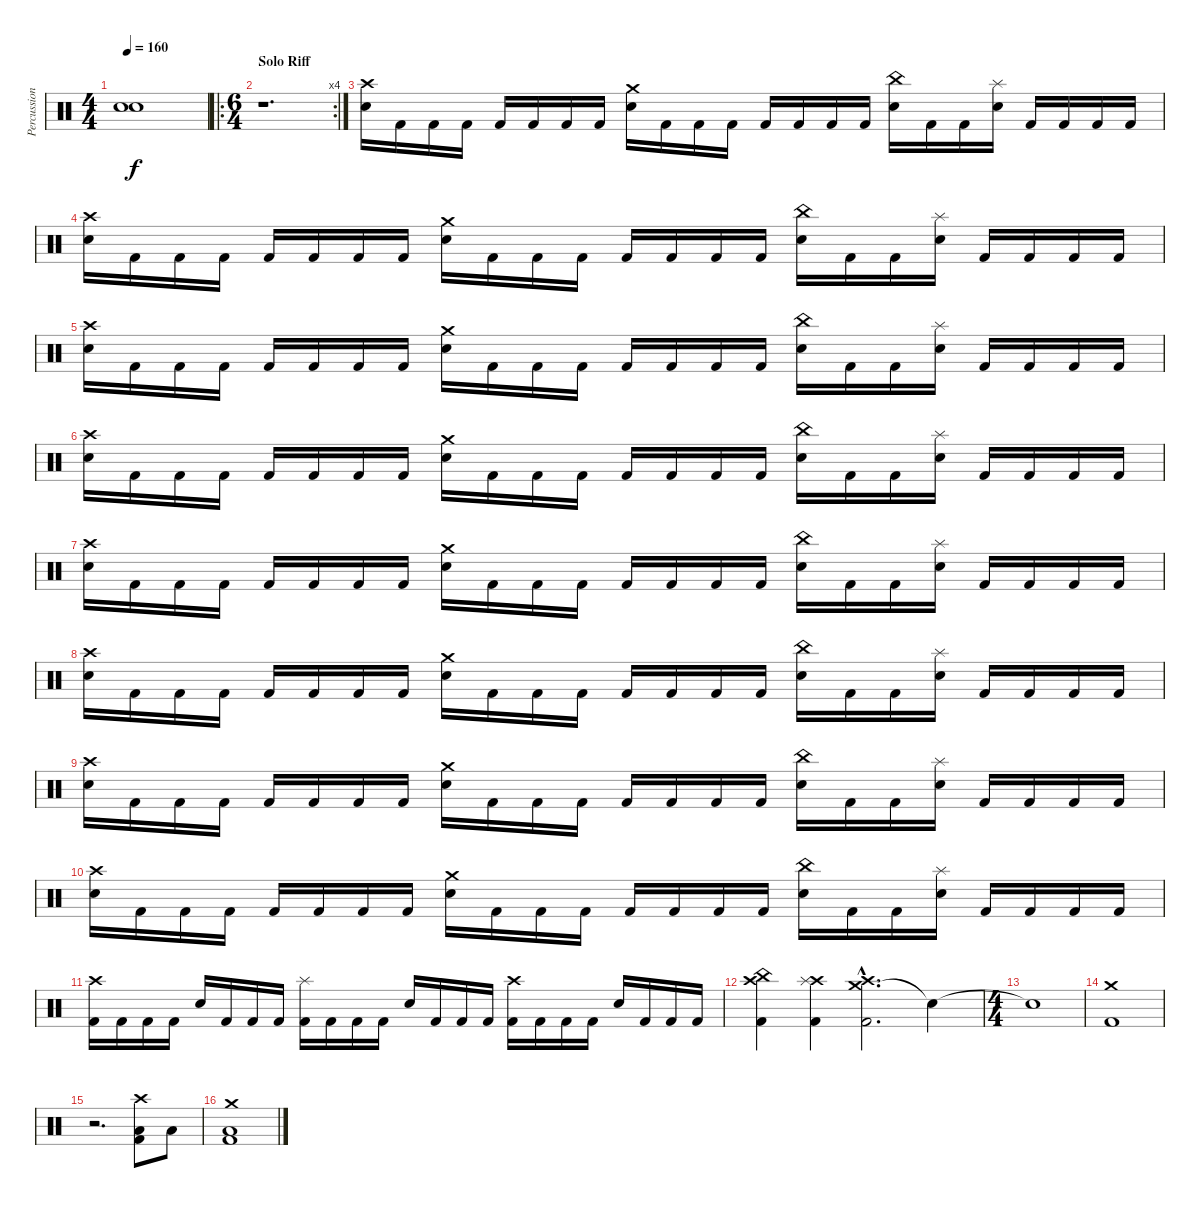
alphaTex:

\track ("Percussion" "Percussion") {instrument percussion}
\staff {score}
\articulation defaults
\ts (4 4)
\tempo 160
\clef neutral
\ks c
("Snare (hit)"{t} "Snare (hit)"{t}).1{dy f} |
\ro
\rc 4
\ts (6 4)
\section ("" "Solo Riff")
r.1{d} |
("Crash high (hit)" "Snare (hit) 2").16 "Kick (hit) 2".16 "Kick (hit) 2".16 "Kick (hit) 2".16 "Kick (hit) 2".16 "Kick (hit) 2".16 "Kick (hit) 2".16 "Kick (hit) 2".16 ("Crash medium (hit)" "Snare (hit) 2").16 "Kick (hit) 2".16 "Kick (hit) 2".16 "Kick (hit) 2".16 "Kick (hit) 2".16 "Kick (hit) 2".16 "Kick (hit) 2".16 "Kick (hit) 2".16 ("China (hit)" "Snare (hit) 2").16 "Kick (hit) 2".16 "Kick (hit) 2".16 ("Splash (hit)" "Snare (hit) 2").16 "Kick (hit) 2".16 "Kick (hit) 2".16 "Kick (hit) 2".16 "Kick (hit) 2".16 |
("Crash high (hit)" "Snare (hit) 2").16 "Kick (hit) 2".16 "Kick (hit) 2".16 "Kick (hit) 2".16 "Kick (hit) 2".16 "Kick (hit) 2".16 "Kick (hit) 2".16 "Kick (hit) 2".16 ("Crash medium (hit)" "Snare (hit) 2").16 "Kick (hit) 2".16 "Kick (hit) 2".16 "Kick (hit) 2".16 "Kick (hit) 2".16 "Kick (hit) 2".16 "Kick (hit) 2".16 "Kick (hit) 2".16 ("China (hit)" "Snare (hit) 2").16 "Kick (hit) 2".16 "Kick (hit) 2".16 ("Splash (hit)" "Snare (hit) 2").16 "Kick (hit) 2".16 "Kick (hit) 2".16 "Kick (hit) 2".16 "Kick (hit) 2".16 |
("Crash high (hit)" "Snare (hit) 2").16 "Kick (hit) 2".16 "Kick (hit) 2".16 "Kick (hit) 2".16 "Kick (hit) 2".16 "Kick (hit) 2".16 "Kick (hit) 2".16 "Kick (hit) 2".16 ("Crash medium (hit)" "Snare (hit) 2").16 "Kick (hit) 2".16 "Kick (hit) 2".16 "Kick (hit) 2".16 "Kick (hit) 2".16 "Kick (hit) 2".16 "Kick (hit) 2".16 "Kick (hit) 2".16 ("China (hit)" "Snare (hit) 2").16 "Kick (hit) 2".16 "Kick (hit) 2".16 ("Splash (hit)" "Snare (hit) 2").16 "Kick (hit) 2".16 "Kick (hit) 2".16 "Kick (hit) 2".16 "Kick (hit) 2".16 |
("Crash high (hit)" "Snare (hit) 2").16 "Kick (hit) 2".16 "Kick (hit) 2".16 "Kick (hit) 2".16 "Kick (hit) 2".16 "Kick (hit) 2".16 "Kick (hit) 2".16 "Kick (hit) 2".16 ("Crash medium (hit)" "Snare (hit) 2").16 "Kick (hit) 2".16 "Kick (hit) 2".16 "Kick (hit) 2".16 "Kick (hit) 2".16 "Kick (hit) 2".16 "Kick (hit) 2".16 "Kick (hit) 2".16 ("China (hit)" "Snare (hit) 2").16 "Kick (hit) 2".16 "Kick (hit) 2".16 ("Splash (hit)" "Snare (hit) 2").16 "Kick (hit) 2".16 "Kick (hit) 2".16 "Kick (hit) 2".16 "Kick (hit) 2".16 |
("Crash high (hit)" "Snare (hit) 2").16 "Kick (hit) 2".16 "Kick (hit) 2".16 "Kick (hit) 2".16 "Kick (hit) 2".16 "Kick (hit) 2".16 "Kick (hit) 2".16 "Kick (hit) 2".16 ("Crash medium (hit)" "Snare (hit) 2").16 "Kick (hit) 2".16 "Kick (hit) 2".16 "Kick (hit) 2".16 "Kick (hit) 2".16 "Kick (hit) 2".16 "Kick (hit) 2".16 "Kick (hit) 2".16 ("China (hit)" "Snare (hit) 2").16 "Kick (hit) 2".16 "Kick (hit) 2".16 ("Splash (hit)" "Snare (hit) 2").16 "Kick (hit) 2".16 "Kick (hit) 2".16 "Kick (hit) 2".16 "Kick (hit) 2".16 |
("Crash high (hit)" "Snare (hit) 2").16 "Kick (hit) 2".16 "Kick (hit) 2".16 "Kick (hit) 2".16 "Kick (hit) 2".16 "Kick (hit) 2".16 "Kick (hit) 2".16 "Kick (hit) 2".16 ("Crash medium (hit)" "Snare (hit) 2").16 "Kick (hit) 2".16 "Kick (hit) 2".16 "Kick (hit) 2".16 "Kick (hit) 2".16 "Kick (hit) 2".16 "Kick (hit) 2".16 "Kick (hit) 2".16 ("China (hit)" "Snare (hit) 2").16 "Kick (hit) 2".16 "Kick (hit) 2".16 ("Splash (hit)" "Snare (hit) 2").16 "Kick (hit) 2".16 "Kick (hit) 2".16 "Kick (hit) 2".16 "Kick (hit) 2".16 |
("Crash high (hit)" "Snare (hit) 2").16 "Kick (hit) 2".16 "Kick (hit) 2".16 "Kick (hit) 2".16 "Kick (hit) 2".16 "Kick (hit) 2".16 "Kick (hit) 2".16 "Kick (hit) 2".16 ("Crash medium (hit)" "Snare (hit) 2").16 "Kick (hit) 2".16 "Kick (hit) 2".16 "Kick (hit) 2".16 "Kick (hit) 2".16 "Kick (hit) 2".16 "Kick (hit) 2".16 "Kick (hit) 2".16 ("China (hit)" "Snare (hit) 2").16 "Kick (hit) 2".16 "Kick (hit) 2".16 ("Splash (hit)" "Snare (hit) 2").16 "Kick (hit) 2".16 "Kick (hit) 2".16 "Kick (hit) 2".16 "Kick (hit) 2".16 |
("Crash high (hit)" "Snare (hit) 2").16 "Kick (hit) 2".16 "Kick (hit) 2".16 "Kick (hit) 2".16 "Kick (hit) 2".16 "Kick (hit) 2".16 "Kick (hit) 2".16 "Kick (hit) 2".16 ("Crash medium (hit)" "Snare (hit) 2").16 "Kick (hit) 2".16 "Kick (hit) 2".16 "Kick (hit) 2".16 "Kick (hit) 2".16 "Kick (hit) 2".16 "Kick (hit) 2".16 "Kick (hit) 2".16 ("China (hit)" "Snare (hit) 2").16 "Kick (hit) 2".16 "Kick (hit) 2".16 ("Splash (hit)" "Snare (hit) 2").16 "Kick (hit) 2".16 "Kick (hit) 2".16 "Kick (hit) 2".16 "Kick (hit) 2".16 |
("Crash high (hit)" "Kick (hit) 2").16 "Kick (hit) 2".16 "Kick (hit) 2".16 "Kick (hit) 2".16 "Snare (hit) 2".16 "Kick (hit) 2".16 "Kick (hit) 2".16 "Kick (hit) 2".16 ("Splash (hit)" "Kick (hit) 2").16 "Kick (hit) 2".16 "Kick (hit) 2".16 "Kick (hit) 2".16 "Snare (hit) 2".16 "Kick (hit) 2".16 "Kick (hit) 2".16 "Kick (hit) 2".16 ("Crash high (hit)" "Kick (hit) 2").16 "Kick (hit) 2".16 "Kick (hit) 2".16 "Kick (hit) 2".16 "Snare (hit) 2".16 "Kick (hit) 2".16 "Kick (hit) 2".16 "Kick (hit) 2".16 |
("Crash high (hit)" "China (hit)" "Kick (hit) 2").4 ("Crash high (hit)" "Splash (hit)" "Kick (hit) 2").4 ("Crash medium (hit)"{hac} "Crash high (hit)"{hac} "Kick (hit) 2"{hac}).2{d} "Snare (hit)"{t}.4 |
\ts (4 4)
"Snare (hit)"{t}.1 |
("Crash medium (hit)" "Kick (hit) 2").1 |
r.2{d} ("Crash high (hit)" "Low Tom (hit)" "Kick (hit) 2").8 "Low Tom (hit)".8 |
("Crash medium (hit)" "Low Tom (hit)" "Kick (hit) 2").1
